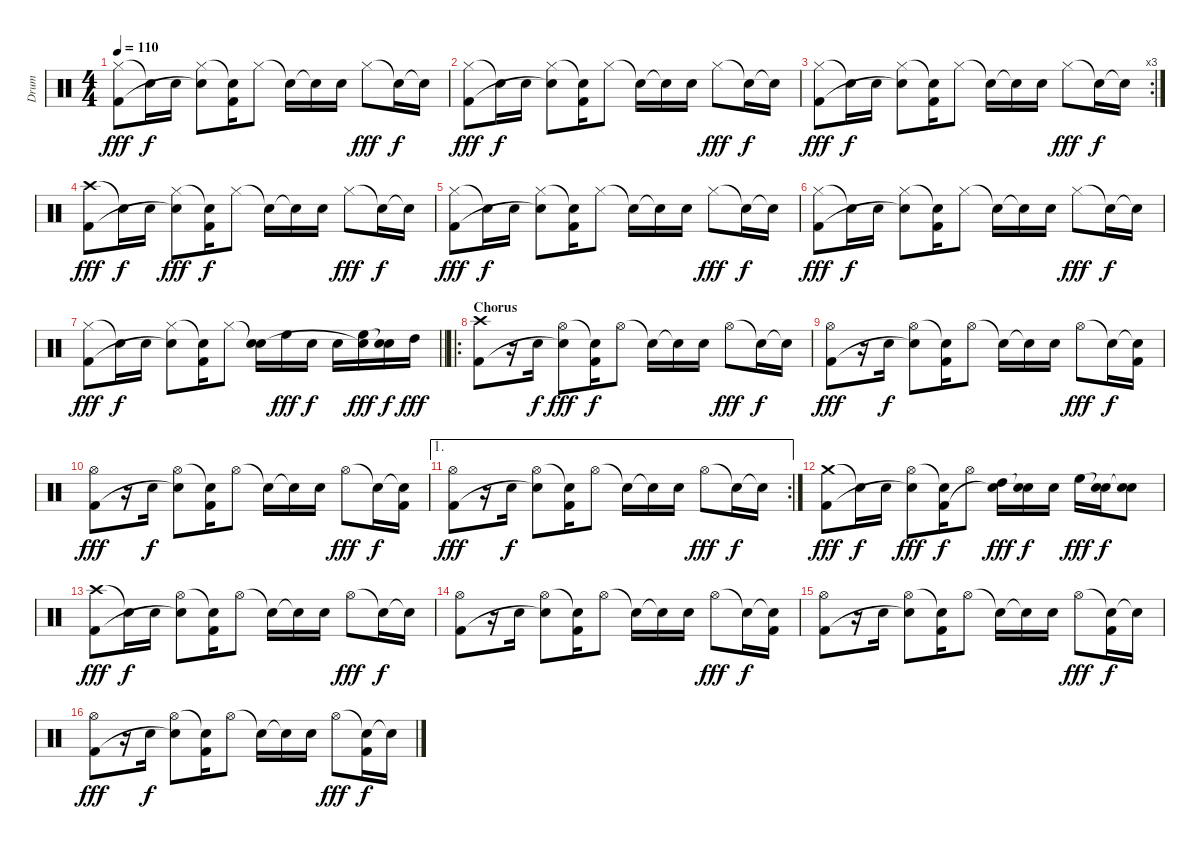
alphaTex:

\track ("Drum" "Drum") {instrument percussion}
\staff {score}
\articulation defaults
\ts (4 4)
\tempo 110
\clef neutral
\ks c
("Hi-Hat (closed)" "Kick (hit) 2").8{dy fff} "Snare (hit)"{t}.16{dy f} "Electric Snare (hit)".16 ("Hi-Hat (closed)" "Electric Snare (hit)"{t}).8 ("Snare (hit)"{t} "Kick (hit) 2").16 "Hi-Hat (closed)".8 "Snare (hit)"{t}.16 "Snare (hit)"{t}.16 "Electric Snare (hit)".16 "Hi-Hat (closed)".8{dy fff} "Snare (hit)"{t}.16{dy f} "Snare (hit)"{t}.16 |
("Hi-Hat (closed)" "Kick (hit) 2").8{dy fff} "Snare (hit)"{t}.16{dy f} "Electric Snare (hit)".16 ("Hi-Hat (closed)" "Electric Snare (hit)"{t}).8 ("Snare (hit)"{t} "Kick (hit) 2").16 "Hi-Hat (closed)".8 "Snare (hit)"{t}.16 "Snare (hit)"{t}.16 "Electric Snare (hit)".16 "Hi-Hat (closed)".8{dy fff} "Snare (hit)"{t}.16{dy f} "Snare (hit)"{t}.16 |
\rc 3
("Hi-Hat (closed)" "Kick (hit) 2").8{dy fff} "Snare (hit)"{t}.16{dy f} "Electric Snare (hit)".16 ("Hi-Hat (closed)" "Electric Snare (hit)"{t}).8 ("Snare (hit)"{t} "Kick (hit) 2").16 "Hi-Hat (closed)".8 "Snare (hit)"{t}.16 "Snare (hit)"{t}.16 "Electric Snare (hit)".16 "Hi-Hat (closed)".8{dy fff} "Snare (hit)"{t}.16{dy f} "Snare (hit)"{t}.16 |
("Crash high (hit)" "Kick (hit) 2").8{dy fff} "Snare (hit)"{t}.16{dy f} "Electric Snare (hit)".16 ("Hi-Hat (closed)" "Electric Snare (hit)"{t}).8{dy fff} ("Snare (hit)"{t} "Kick (hit) 2").16{dy f} "Hi-Hat (closed)".8 "Snare (hit)"{t}.16 "Snare (hit)"{t}.16 "Electric Snare (hit)".16 "Hi-Hat (closed)".8{dy fff} "Snare (hit)"{t}.16{dy f} "Snare (hit)"{t}.16 |
("Hi-Hat (closed)" "Kick (hit) 2").8{dy fff} "Snare (hit)"{t}.16{dy f} "Electric Snare (hit)".16 ("Hi-Hat (closed)" "Electric Snare (hit)"{t}).8 ("Snare (hit)"{t} "Kick (hit) 2").16 "Hi-Hat (closed)".8 "Snare (hit)"{t}.16 "Snare (hit)"{t}.16 "Electric Snare (hit)".16 "Hi-Hat (closed)".8{dy fff} "Snare (hit)"{t}.16{dy f} "Snare (hit)"{t}.16 |
("Hi-Hat (closed)" "Kick (hit) 2").8{dy fff} "Snare (hit)"{t}.16{dy f} "Electric Snare (hit)".16 ("Hi-Hat (closed)" "Electric Snare (hit)"{t}).8 ("Snare (hit)"{t} "Kick (hit) 2").16 "Hi-Hat (closed)".8 "Snare (hit)"{t}.16 "Snare (hit)"{t}.16 "Electric Snare (hit)".16 "Hi-Hat (closed)".8{dy fff} "Snare (hit)"{t}.16{dy f} "Snare (hit)"{t}.16 |
\barLineRight lightlight
("Hi-Hat (closed)" "Kick (hit) 2").8{dy fff} "Snare (hit)"{t}.16{dy f} "Electric Snare (hit)".16 ("Hi-Hat (closed)" "Electric Snare (hit)"{t}).8 ("Snare (hit)"{t} "Kick (hit) 2").16 "Hi-Hat (closed)".8 ("Snare (hit)"{t} "Electric Snare (hit)").16 "High Floor Tom (hit)".16{dy fff} "Electric Snare (hit)".16{dy f} "Electric Snare (hit)".16 ("High Floor Tom (hit)" "Snare (hit)"{t}).16{dy fff} ("Snare (hit)"{t} "Electric Snare (hit)").16{dy f} "High Tom (hit)".16{dy fff} |
\ro
\section ("" "Chorus")
("Crash high (hit)" "Kick (hit) 2").8 r.16 "Electric Snare (hit)".16{dy f} ("Hi-Hat (open)" "Electric Snare (hit)"{t}).8{dy fff} ("Snare (hit)"{t} "Kick (hit) 2").16{dy f} "Hi-Hat (open)".8 "Snare (hit)"{t}.16 "Snare (hit)"{t}.16 "Electric Snare (hit)".16 "Hi-Hat (open)".8{dy fff} "Snare (hit)"{t}.16{dy f} "Snare (hit)"{t}.16 |
("Hi-Hat (open)" "Kick (hit) 2").8{dy fff} r.16 "Electric Snare (hit)".16{dy f} ("Hi-Hat (open)" "Electric Snare (hit)"{t}).8 ("Snare (hit)"{t} "Kick (hit) 2").16 "Hi-Hat (open)".8 "Snare (hit)"{t}.16 "Snare (hit)"{t}.16 "Electric Snare (hit)".16 "Hi-Hat (open)".8{dy fff} "Snare (hit)"{t}.16{dy f} ("Snare (hit)"{t} "Kick (hit) 2").16 |
("Hi-Hat (open)" "Kick (hit) 2").8{dy fff} r.16 "Electric Snare (hit)".16{dy f} ("Hi-Hat (open)" "Electric Snare (hit)"{t}).8 ("Snare (hit)"{t} "Kick (hit) 2").16 "Hi-Hat (open)".8 "Snare (hit)"{t}.16 "Snare (hit)"{t}.16 "Electric Snare (hit)".16 "Hi-Hat (open)".8{dy fff} "Snare (hit)"{t}.16{dy f} ("Snare (hit)"{t} "Kick (hit) 2").16 |
\ae 1
\rc 2
("Hi-Hat (open)" "Kick (hit) 2").8{dy fff} r.16 "Electric Snare (hit)".16{dy f} ("Hi-Hat (open)" "Electric Snare (hit)"{t}).8 ("Snare (hit)"{t} "Kick (hit) 2").16 "Hi-Hat (open)".8 "Snare (hit)"{t}.16 "Snare (hit)"{t}.16 "Electric Snare (hit)".16 "Hi-Hat (open)".8{dy fff} "Snare (hit)"{t}.16{dy f} "Snare (hit)"{t}.16 |
("Crash medium (hit)" "Kick (hit) 2").8{dy fff} "Snare (hit)"{t}.16{dy f} "Electric Snare (hit)".16 ("Hi-Hat (open)" "Electric Snare (hit)"{t}).8{dy fff} ("Snare (hit)"{t} "Kick (hit) 2").16{dy f} "Hi-Hat (open)".8 ("High Tom (hit)" "Snare (hit)"{t}).16{dy fff} ("Snare (hit)"{t} "Electric Snare (hit)").16{dy f} "Electric Snare (hit)".16 "High Floor Tom (hit)".16{dy fff} ("Snare (hit)"{t} "Electric Snare (hit)").16{dy f} ("Snare (hit)"{t} "Electric Snare (hit)").8 |
("Crash high (hit)" "Kick (hit) 2").8{dy fff} "Snare (hit)"{t}.16{dy f} "Electric Snare (hit)".16 ("Hi-Hat (open)" "Electric Snare (hit)"{t}).8 ("Snare (hit)"{t} "Kick (hit) 2").16 "Hi-Hat (open)".8 "Snare (hit)"{t}.16 "Snare (hit)"{t}.16 "Electric Snare (hit)".16 "Hi-Hat (open)".8{dy fff} "Snare (hit)"{t}.16{dy f} "Snare (hit)"{t}.16 |
("Hi-Hat (open)" "Kick (hit) 2").8 r.16 "Electric Snare (hit)".16 ("Hi-Hat (open)" "Electric Snare (hit)"{t}).8 ("Snare (hit)"{t} "Kick (hit) 2").16 "Hi-Hat (open)".8 "Snare (hit)"{t}.16 "Snare (hit)"{t}.16 "Electric Snare (hit)".16 "Hi-Hat (open)".8{dy fff} "Snare (hit)"{t}.16{dy f} ("Snare (hit)"{t} "Kick (hit) 2").16 |
("Hi-Hat (open)" "Kick (hit) 2").8 r.16 "Electric Snare (hit)".16 ("Hi-Hat (open)" "Electric Snare (hit)"{t}).8 ("Snare (hit)"{t} "Kick (hit) 2").16 "Hi-Hat (open)".8 "Snare (hit)"{t}.16 "Snare (hit)"{t}.16 "Electric Snare (hit)".16 "Hi-Hat (open)".8{dy fff} ("Snare (hit)"{t} "Kick (hit) 2").16{dy f} "Snare (hit)"{t}.16 |
("Hi-Hat (open)" "Kick (hit) 2").8{dy fff} r.16 "Electric Snare (hit)".16{dy f} ("Hi-Hat (open)" "Electric Snare (hit)"{t}).8 ("Snare (hit)"{t} "Kick (hit) 2").16 "Hi-Hat (open)".8 "Snare (hit)"{t}.16 "Snare (hit)"{t}.16 "Electric Snare (hit)".16 "Hi-Hat (open)".8{dy fff} ("Snare (hit)"{t} "Kick (hit) 2").16{dy f} "Snare (hit)"{t}.16
